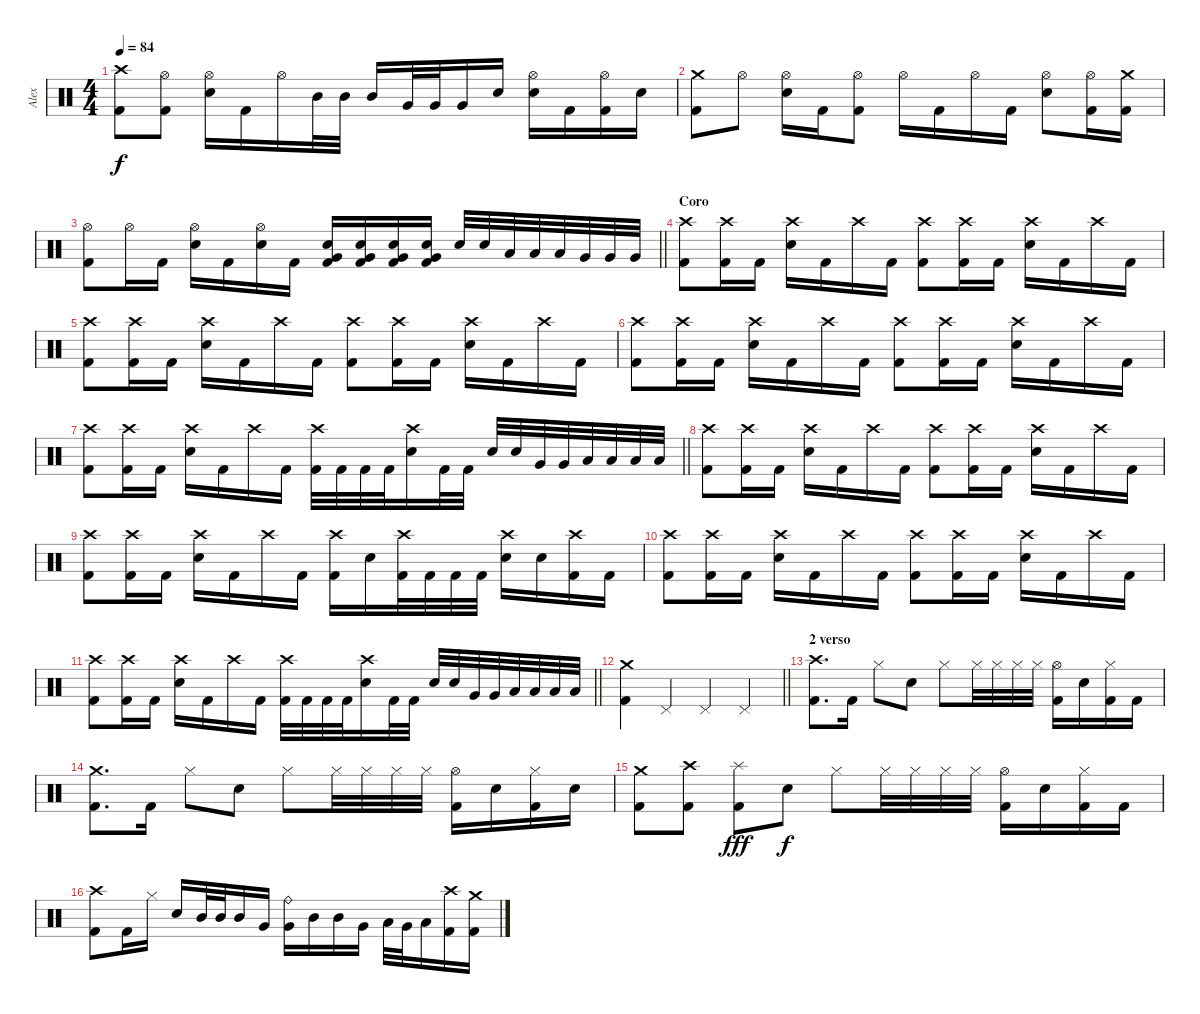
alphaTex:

\track ("Alex" "Alex") {instrument percussion}
\staff {score}
\articulation defaults
\ts (4 4)
\tempo 84
\clef neutral
\ks c
("Crash high (hit)" "Kick (hit) 2").8{dy f} ("Hi-Hat (open)" "Kick (hit) 2").8 ("Hi-Hat (open)" "Electric Snare (hit)").16 "Kick (hit) 2".16 "Hi-Hat (open)".16 "Mid Tom (hit)".32 "Mid Tom (hit)".32 "Mid Tom (hit)".16 "Very Low Tom (hit)".32 "Very Low Tom (hit)".32 "Very Low Tom (hit)".16 "Electric Snare (hit)".16 ("Hi-Hat (open)" "Electric Snare (hit)").16 "Kick (hit) 2".16 ("Hi-Hat (open)" "Kick (hit) 2").16 "Electric Snare (hit)".16 |
("Crash medium (hit)" "Kick (hit) 2").8 "Hi-Hat (open)".8 ("Hi-Hat (open)" "Electric Snare (hit)").16 "Kick (hit) 2".16 ("Hi-Hat (open)" "Kick (hit) 2").8 "Hi-Hat (open)".16 "Kick (hit) 2".16 "Hi-Hat (open)".16 "Kick (hit) 2".16 ("Hi-Hat (open)" "Electric Snare (hit)").8 ("Hi-Hat (open)" "Kick (hit) 2").16 ("Crash medium (hit)" "Kick (hit) 2").16 |
\barLineRight lightlight
("Hi-Hat (open)" "Kick (hit) 2").8 "Hi-Hat (open)".16 "Kick (hit) 2".16 ("Hi-Hat (open)" "Electric Snare (hit)").16 "Kick (hit) 2".16 ("Hi-Hat (open)" "Electric Snare (hit)").16 "Kick (hit) 2".16 ("Very Low Tom (hit)" "Electric Snare (hit)" "Kick (hit) 2").16 ("Very Low Tom (hit)" "Electric Snare (hit)" "Kick (hit) 2").16 ("Very Low Tom (hit)" "Electric Snare (hit)" "Kick (hit) 2").16 ("Very Low Tom (hit)" "Electric Snare (hit)" "Kick (hit) 2").16 "Electric Snare (hit)".32 "Electric Snare (hit)".32 "Low Tom (hit)".32 "Low Tom (hit)".32 "Low Tom (hit)".32 "Very Low Tom (hit)".32 "Very Low Tom (hit)".32 "Very Low Tom (hit)".32 |
\section ("" "Coro")
("Crash high (hit)" "Kick (hit) 2").8 ("Crash high (hit)" "Kick (hit) 2").16 "Kick (hit) 2".16 ("Crash high (hit)" "Electric Snare (hit)").16 "Kick (hit) 2".16 "Crash high (hit)".16 "Kick (hit) 2".16 ("Crash high (hit)" "Kick (hit) 2").8 ("Crash high (hit)" "Kick (hit) 2").16 "Kick (hit) 2".16 ("Crash high (hit)" "Electric Snare (hit)").16 "Kick (hit) 2".16 "Crash high (hit)".16 "Kick (hit) 2".16 |
("Crash high (hit)" "Kick (hit) 2").8 ("Crash high (hit)" "Kick (hit) 2").16 "Kick (hit) 2".16 ("Crash high (hit)" "Electric Snare (hit)").16 "Kick (hit) 2".16 "Crash high (hit)".16 "Kick (hit) 2".16 ("Crash high (hit)" "Kick (hit) 2").8 ("Crash high (hit)" "Kick (hit) 2").16 "Kick (hit) 2".16 ("Crash high (hit)" "Electric Snare (hit)").16 "Kick (hit) 2".16 "Crash high (hit)".16 "Kick (hit) 2".16 |
("Crash high (hit)" "Kick (hit) 2").8 ("Crash high (hit)" "Kick (hit) 2").16 "Kick (hit) 2".16 ("Crash high (hit)" "Electric Snare (hit)").16 "Kick (hit) 2".16 "Crash high (hit)".16 "Kick (hit) 2".16 ("Crash high (hit)" "Kick (hit) 2").8 ("Crash high (hit)" "Kick (hit) 2").16 "Kick (hit) 2".16 ("Crash high (hit)" "Electric Snare (hit)").16 "Kick (hit) 2".16 "Crash high (hit)".16 "Kick (hit) 2".16 |
\barLineRight lightlight
("Crash high (hit)" "Kick (hit) 2").8 ("Crash high (hit)" "Kick (hit) 2").16 "Kick (hit) 2".16 ("Crash high (hit)" "Electric Snare (hit)").16 "Kick (hit) 2".16 "Crash high (hit)".16 "Kick (hit) 2".16 ("Crash high (hit)" "Kick (hit) 2").32 "Kick (hit) 2".32 "Kick (hit) 2".32 "Kick (hit) 2".32 ("Crash high (hit)" "Electric Snare (hit)").16 "Kick (hit) 2".32 "Kick (hit) 2".32 "Electric Snare (hit)".32 "Electric Snare (hit)".32 "Very Low Tom (hit)".32 "Very Low Tom (hit)".32 "Low Tom (hit)".32 "Low Tom (hit)".32 "Low Floor Tom (hit)".32 "Low Floor Tom (hit)".32 |
("Crash high (hit)" "Kick (hit) 2").8 ("Crash high (hit)" "Kick (hit) 2").16 "Kick (hit) 2".16 ("Crash high (hit)" "Electric Snare (hit)").16 "Kick (hit) 2".16 "Crash high (hit)".16 "Kick (hit) 2".16 ("Crash high (hit)" "Kick (hit) 2").8 ("Crash high (hit)" "Kick (hit) 2").16 "Kick (hit) 2".16 ("Crash high (hit)" "Electric Snare (hit)").16 "Kick (hit) 2".16 "Crash high (hit)".16 "Kick (hit) 2".16 |
("Crash high (hit)" "Kick (hit) 2").8 ("Crash high (hit)" "Kick (hit) 2").16 "Kick (hit) 2".16 ("Crash high (hit)" "Electric Snare (hit)").16 "Kick (hit) 2".16 "Crash high (hit)".16 "Kick (hit) 2".16 ("Crash high (hit)" "Kick (hit) 2").16 "Electric Snare (hit)".16 ("Crash high (hit)" "Kick (hit) 2").32 "Kick (hit) 2".32 "Kick (hit) 2".32 "Kick (hit) 2".32 ("Crash high (hit)" "Electric Snare (hit)").16 "Electric Snare (hit)".16 ("Crash high (hit)" "Kick (hit) 2").16 "Kick (hit) 2".16 |
("Crash high (hit)" "Kick (hit) 2").8 ("Crash high (hit)" "Kick (hit) 2").16 "Kick (hit) 2".16 ("Crash high (hit)" "Electric Snare (hit)").16 "Kick (hit) 2".16 "Crash high (hit)".16 "Kick (hit) 2".16 ("Crash high (hit)" "Kick (hit) 2").8 ("Crash high (hit)" "Kick (hit) 2").16 "Kick (hit) 2".16 ("Crash high (hit)" "Electric Snare (hit)").16 "Kick (hit) 2".16 "Crash high (hit)".16 "Kick (hit) 2".16 |
\barLineRight lightlight
("Crash high (hit)" "Kick (hit) 2").8 ("Crash high (hit)" "Kick (hit) 2").16 "Kick (hit) 2".16 ("Crash high (hit)" "Electric Snare (hit)").16 "Kick (hit) 2".16 "Crash high (hit)".16 "Kick (hit) 2".16 ("Crash high (hit)" "Kick (hit) 2").32 "Kick (hit) 2".32 "Kick (hit) 2".32 "Kick (hit) 2".32 ("Crash high (hit)" "Electric Snare (hit)").16 "Kick (hit) 2".32 "Kick (hit) 2".32 "Electric Snare (hit)".32 "Electric Snare (hit)".32 "Very Low Tom (hit)".32 "Very Low Tom (hit)".32 "Low Tom (hit)".32 "Low Tom (hit)".32 "Low Floor Tom (hit)".32 "Low Floor Tom (hit)".32 |
\barLineRight lightlight
("Crash medium (hit)" "Kick (hit) 2").4 "Pedal Hi-Hat (hit)".4 "Pedal Hi-Hat (hit)".4 "Pedal Hi-Hat (hit)".4 |
\section ("" "2 verso")
("Crash high (hit)" "Kick (hit) 2").8{d} "Kick (hit) 2".16 "Hi-Hat (closed)".8 "Electric Snare (hit)".8 "Hi-Hat (closed)".8 "Hi-Hat (closed)".32 "Hi-Hat (closed)".32 "Hi-Hat (closed)".32 "Hi-Hat (closed)".32 ("Hi-Hat (open)" "Kick (hit) 2").16 "Electric Snare (hit)".16 ("Hi-Hat (closed)" "Kick (hit) 2").16 "Kick (hit) 2".16 |
("Crash medium (hit)" "Kick (hit) 2").8{d} "Kick (hit) 2".16 "Hi-Hat (closed)".8 "Electric Snare (hit)".8 "Hi-Hat (closed)".8 "Hi-Hat (closed)".32 "Hi-Hat (closed)".32 "Hi-Hat (closed)".32 "Hi-Hat (closed)".32 ("Hi-Hat (open)" "Kick (hit) 2").16 "Electric Snare (hit)".16 ("Hi-Hat (closed)" "Kick (hit) 2").16 "Electric Snare (hit)".16 |
("Crash medium (hit)" "Kick (hit) 2").8 ("Crash high (hit)" "Kick (hit) 2").8 ("Splash (hit)" "Kick (hit) 2").8{dy fff} "Electric Snare (hit)".8{dy f} "Hi-Hat (closed)".8 "Hi-Hat (closed)".32 "Hi-Hat (closed)".32 "Hi-Hat (closed)".32 "Hi-Hat (closed)".32 ("Hi-Hat (open)" "Kick (hit) 2").16 "Electric Snare (hit)".16 ("Hi-Hat (closed)" "Kick (hit) 2").16 "Kick (hit) 2".16 |
("Crash high (hit)" "Kick (hit) 2").8 "Kick (hit) 2".16 "Hi-Hat (closed)".16 "Electric Snare (hit)".16 "Mid Tom (hit)".32 "Mid Tom (hit)".32 "Mid Tom (hit)".16 "Very Low Tom (hit)".16 ("Ride (bell)" "Very Low Tom (hit)").16 "Mid Tom (hit)".16 "Mid Tom (hit)".16 "Very Low Tom (hit)".16 "Low Tom (hit)".32 "Very Low Tom (hit)".32 "Low Floor Tom (hit)".16 ("Crash high (hit)" "Kick (hit) 2").16 ("Crash medium (hit)" "Kick (hit) 2").16
